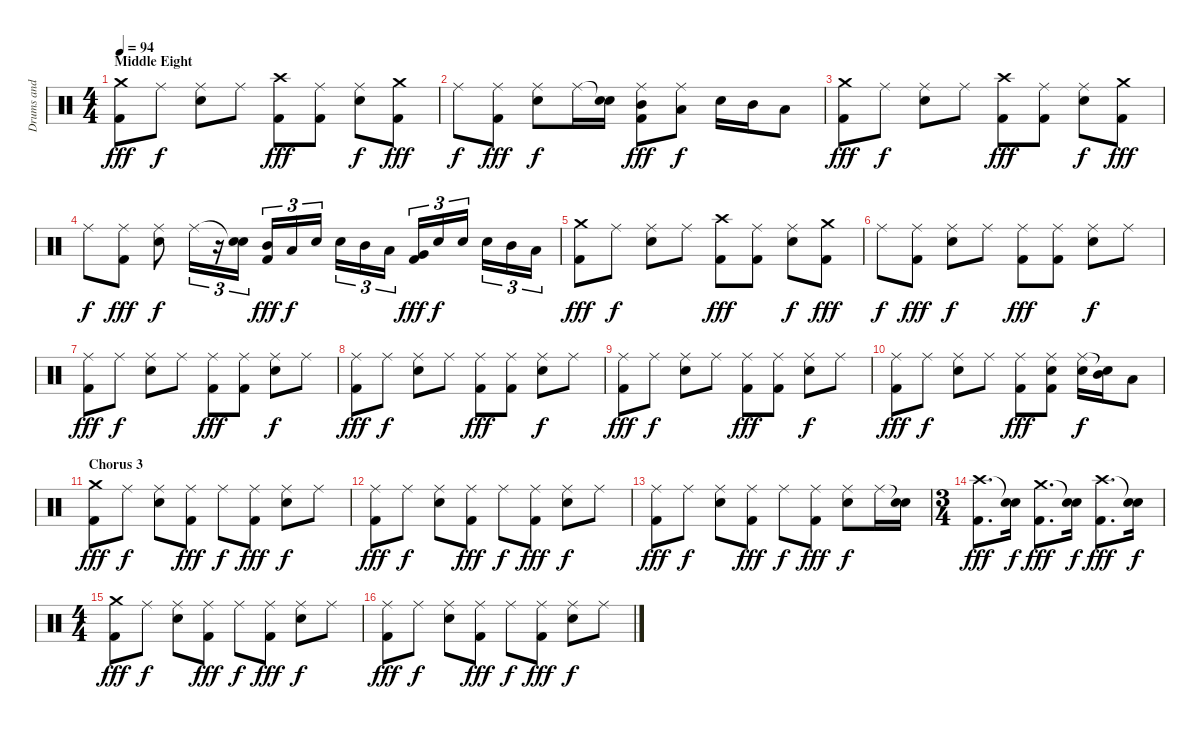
\track ("Drums and Percussion" "Drums and ") {instrument percussion}
\staff {score}
\articulation defaults
\ts (4 4)
\section ("" "Middle Eight")
\tempo 94
\clef neutral
\ks c
("Crash medium (hit)" "Kick (hit) 2").8{dy fff} "Ride (middle)".8{dy f} ("Ride (middle)" "Snare (hit) 2").8 "Ride (middle)".8 ("Crash high (hit)" "Kick (hit) 2").8{dy fff} ("Ride (middle)" "Kick (hit) 2").8 ("Ride (middle)" "Snare (hit) 2").8{dy f} ("Crash medium (hit)" "Kick (hit) 2").8{dy fff} |
"Ride (middle)".8{dy f} ("Ride (middle)" "Kick (hit) 2").8{dy fff} ("Ride (middle)" "Snare (hit) 2").8{dy f} "Ride (middle)".16 ("Snare (hit)"{t} "Snare (hit) 2").16 ("Ride (middle)" "Mid Tom (hit)" "Kick (hit) 2").8{dy fff} ("Ride (middle)" "Low Tom (hit)").8{dy f} "Snare (hit) 2".16 "Mid Tom (hit)".16 "Low Tom (hit)".8 |
("Crash medium (hit)" "Kick (hit) 2").8{dy fff} "Ride (middle)".8{dy f} ("Ride (middle)" "Snare (hit) 2").8 "Ride (middle)".8 ("Crash high (hit)" "Kick (hit) 2").8{dy fff} ("Ride (middle)" "Kick (hit) 2").8 ("Ride (middle)" "Snare (hit) 2").8{dy f} ("Crash medium (hit)" "Kick (hit) 2").8{dy fff} |
"Ride (middle)".8{dy f} ("Ride (middle)" "Kick (hit) 2").8{dy fff} ("Ride (middle)" "Snare (hit) 2").8{dy f} "Ride (middle)".16{tu (3 2)} r.16{tu (3 2)} ("Snare (hit)"{t} "Snare (hit) 2").16{tu (3 2)} ("Mid Tom (hit)" "Kick (hit) 2").16{tu (3 2) dy fff} "Low Tom (hit)".16{tu (3 2) dy f} "Snare (hit) 2".16{tu (3 2)} "Snare (hit) 2".16{tu (3 2)} "Mid Tom (hit)".16{tu (3 2)} "Low Tom (hit)".16{tu (3 2)} ("Very Low Tom (hit)" "Kick (hit) 2").16{tu (3 2) dy fff} "Snare (hit) 2".16{tu (3 2) dy f} "Snare (hit) 2".16{tu (3 2)} "Snare (hit) 2".16{tu (3 2)} "Mid Tom (hit)".16{tu (3 2)} "Low Tom (hit)".16{tu (3 2)} |
("Crash medium (hit)" "Kick (hit) 2").8{dy fff} "Ride (middle)".8{dy f} ("Ride (middle)" "Snare (hit) 2").8 "Ride (middle)".8 ("Crash high (hit)" "Kick (hit) 2").8{dy fff} ("Ride (middle)" "Kick (hit) 2").8 ("Ride (middle)" "Snare (hit) 2").8{dy f} ("Crash medium (hit)" "Kick (hit) 2").8{dy fff} |
"Ride (middle)".8{dy f} ("Ride (middle)" "Kick (hit) 2").8{dy fff} ("Ride (middle)" "Snare (hit) 2").8{dy f} "Ride (middle)".8 ("Ride (middle)" "Kick (hit) 2").8{dy fff} ("Ride (middle)" "Kick (hit) 2").8 ("Ride (middle)" "Snare (hit) 2").8{dy f} "Ride (middle)".8 |
("Ride (middle)" "Kick (hit) 2").8{dy fff} "Ride (middle)".8{dy f} ("Ride (middle)" "Snare (hit) 2").8 "Ride (middle)".8 ("Ride (middle)" "Kick (hit) 2").8{dy fff} ("Ride (middle)" "Kick (hit) 2").8 ("Ride (middle)" "Snare (hit) 2").8{dy f} "Ride (middle)".8 |
("Ride (middle)" "Kick (hit) 2").8{dy fff} "Ride (middle)".8{dy f} ("Ride (middle)" "Snare (hit) 2").8 "Ride (middle)".8 ("Ride (middle)" "Kick (hit) 2").8{dy fff} ("Ride (middle)" "Kick (hit) 2").8 ("Ride (middle)" "Snare (hit) 2").8{dy f} "Ride (middle)".8 |
("Ride (middle)" "Kick (hit) 2").8{dy fff} "Ride (middle)".8{dy f} ("Ride (middle)" "Snare (hit) 2").8 "Ride (middle)".8 ("Ride (middle)" "Kick (hit) 2").8{dy fff} ("Ride (middle)" "Kick (hit) 2").8 ("Ride (middle)" "Snare (hit) 2").8{dy f} "Ride (middle)".8 |
("Ride (middle)" "Kick (hit) 2").8{dy fff} "Ride (middle)".8{dy f} ("Ride (middle)" "Snare (hit) 2").8 "Ride (middle)".8 ("Ride (middle)" "Kick (hit) 2").8{dy fff} ("Ride (middle)" "Snare (hit) 2" "Kick (hit) 2").8 ("Ride (middle)" "Snare (hit) 2").16{dy f} ("Snare (hit)"{t} "Mid Tom (hit)").16 "Low Tom (hit)".8 |
\section ("" "Chorus 3")
("Crash medium (hit)" "Kick (hit) 2").8{dy fff} "Ride (middle)".8{dy f} ("Ride (middle)" "Snare (hit) 2").8 ("Ride (middle)" "Kick (hit) 2").8{dy fff} "Ride (middle)".8{dy f} ("Ride (middle)" "Kick (hit) 2").8{dy fff} ("Ride (middle)" "Snare (hit) 2").8{dy f} "Ride (middle)".8 |
("Ride (middle)" "Kick (hit) 2").8{dy fff} "Ride (middle)".8{dy f} ("Ride (middle)" "Snare (hit) 2").8 ("Ride (middle)" "Kick (hit) 2").8{dy fff} "Ride (middle)".8{dy f} ("Ride (middle)" "Kick (hit) 2").8{dy fff} ("Ride (middle)" "Snare (hit) 2").8{dy f} "Ride (middle)".8 |
("Ride (middle)" "Kick (hit) 2").8{dy fff} "Ride (middle)".8{dy f} ("Ride (middle)" "Snare (hit) 2").8 ("Ride (middle)" "Kick (hit) 2").8{dy fff} "Ride (middle)".8{dy f} ("Ride (middle)" "Kick (hit) 2").8{dy fff} ("Ride (middle)" "Snare (hit) 2").8{dy f} "Ride (middle)".16 ("Snare (hit)"{t} "Snare (hit) 2").16 |
\ts (3 4)
("Crash high (hit)" "Kick (hit) 2").8{d dy fff} ("Snare (hit)"{t} "Snare (hit) 2").16{dy f} ("Crash medium (hit)" "Kick (hit) 2").8{d dy fff} ("Snare (hit)"{t} "Snare (hit) 2").16{dy f} ("Crash high (hit)" "Kick (hit) 2").8{d dy fff} ("Snare (hit)"{t} "Snare (hit) 2").16{dy f} |
\ts (4 4)
("Crash medium (hit)" "Kick (hit) 2").8{dy fff} "Ride (middle)".8{dy f} ("Ride (middle)" "Snare (hit) 2").8 ("Ride (middle)" "Kick (hit) 2").8{dy fff} "Ride (middle)".8{dy f} ("Ride (middle)" "Kick (hit) 2").8{dy fff} ("Ride (middle)" "Snare (hit) 2").8{dy f} "Ride (middle)".8 |
("Ride (middle)" "Kick (hit) 2").8{dy fff} "Ride (middle)".8{dy f} ("Ride (middle)" "Snare (hit) 2").8 ("Ride (middle)" "Kick (hit) 2").8{dy fff} "Ride (middle)".8{dy f} ("Ride (middle)" "Kick (hit) 2").8{dy fff} ("Ride (middle)" "Snare (hit) 2").8{dy f} "Ride (middle)".8
